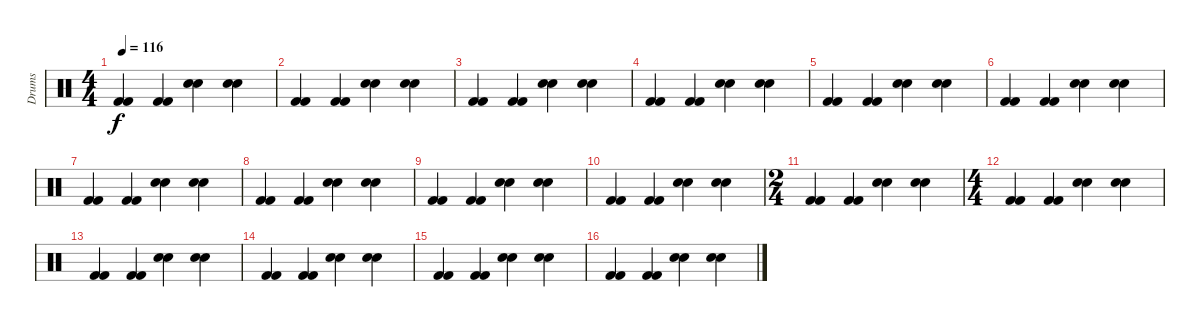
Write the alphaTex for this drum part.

\track ("Drums" "Drums") {instrument percussion}
\staff {score}
\articulation defaults
\ts (4 4)
\tempo 116
\clef neutral
\ks c
("Kick (hit) 2" "Kick (hit) 2").4{dy f} ("Kick (hit) 2" "Kick (hit) 2").4 ("Snare (hit) 2" "Snare (hit) 2").4 ("Snare (hit) 2" "Snare (hit) 2").4 |
("Kick (hit) 2" "Kick (hit) 2").4 ("Kick (hit) 2" "Kick (hit) 2").4 ("Snare (hit) 2" "Snare (hit) 2").4 ("Snare (hit) 2" "Snare (hit) 2").4 |
("Kick (hit) 2" "Kick (hit) 2").4 ("Kick (hit) 2" "Kick (hit) 2").4 ("Snare (hit) 2" "Snare (hit) 2").4 ("Snare (hit) 2" "Snare (hit) 2").4 |
("Kick (hit) 2" "Kick (hit) 2").4 ("Kick (hit) 2" "Kick (hit) 2").4 ("Snare (hit) 2" "Snare (hit) 2").4 ("Snare (hit) 2" "Snare (hit) 2").4 |
("Kick (hit) 2" "Kick (hit) 2").4 ("Kick (hit) 2" "Kick (hit) 2").4 ("Snare (hit) 2" "Snare (hit) 2").4 ("Snare (hit) 2" "Snare (hit) 2").4 |
("Kick (hit) 2" "Kick (hit) 2").4 ("Kick (hit) 2" "Kick (hit) 2").4 ("Snare (hit) 2" "Snare (hit) 2").4 ("Snare (hit) 2" "Snare (hit) 2").4 |
("Kick (hit) 2" "Kick (hit) 2").4 ("Kick (hit) 2" "Kick (hit) 2").4 ("Snare (hit) 2" "Snare (hit) 2").4 ("Snare (hit) 2" "Snare (hit) 2").4 |
("Kick (hit) 2" "Kick (hit) 2").4 ("Kick (hit) 2" "Kick (hit) 2").4 ("Snare (hit) 2" "Snare (hit) 2").4 ("Snare (hit) 2" "Snare (hit) 2").4 |
("Kick (hit) 2" "Kick (hit) 2").4 ("Kick (hit) 2" "Kick (hit) 2").4 ("Snare (hit) 2" "Snare (hit) 2").4 ("Snare (hit) 2" "Snare (hit) 2").4 |
("Kick (hit) 2" "Kick (hit) 2").4 ("Kick (hit) 2" "Kick (hit) 2").4 ("Snare (hit) 2" "Snare (hit) 2").4 ("Snare (hit) 2" "Snare (hit) 2").4 |
\ts (2 4)
("Kick (hit) 2" "Kick (hit) 2").4 ("Kick (hit) 2" "Kick (hit) 2").4 ("Snare (hit) 2" "Snare (hit) 2").4 ("Snare (hit) 2" "Snare (hit) 2").4 |
\ts (4 4)
("Kick (hit) 2" "Kick (hit) 2").4 ("Kick (hit) 2" "Kick (hit) 2").4 ("Snare (hit) 2" "Snare (hit) 2").4 ("Snare (hit) 2" "Snare (hit) 2").4 |
("Kick (hit) 2" "Kick (hit) 2").4 ("Kick (hit) 2" "Kick (hit) 2").4 ("Snare (hit) 2" "Snare (hit) 2").4 ("Snare (hit) 2" "Snare (hit) 2").4 |
("Kick (hit) 2" "Kick (hit) 2").4 ("Kick (hit) 2" "Kick (hit) 2").4 ("Snare (hit) 2" "Snare (hit) 2").4 ("Snare (hit) 2" "Snare (hit) 2").4 |
("Kick (hit) 2" "Kick (hit) 2").4 ("Kick (hit) 2" "Kick (hit) 2").4 ("Snare (hit) 2" "Snare (hit) 2").4 ("Snare (hit) 2" "Snare (hit) 2").4 |
("Kick (hit) 2" "Kick (hit) 2").4 ("Kick (hit) 2" "Kick (hit) 2").4 ("Snare (hit) 2" "Snare (hit) 2").4 ("Snare (hit) 2" "Snare (hit) 2").4
